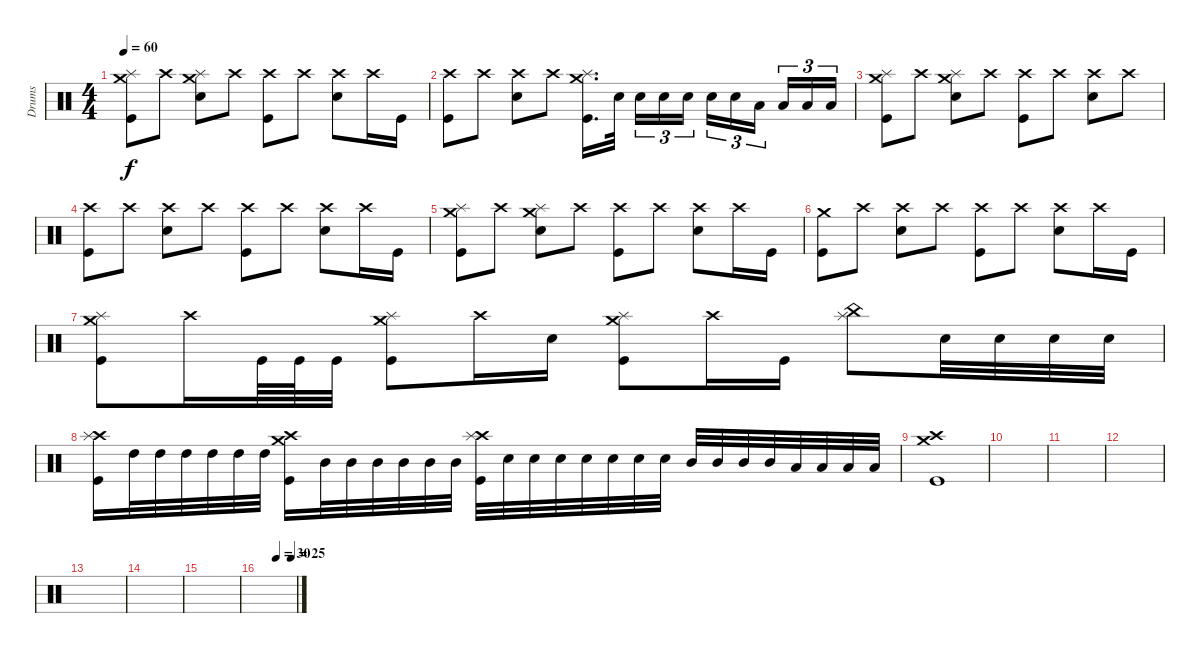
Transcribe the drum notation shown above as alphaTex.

\track ("Drums" "Drums") {instrument percussion}
\staff {score}
\articulation defaults
\ts (4 4)
\tempo 60
\clef neutral
\ks c
("Crash medium (hit)" "Splash (hit)" "Kick (hit)").8{dy f} "Crash high (hit)".8 ("Splash (hit)" "Crash medium (hit)" "Electric Snare (hit)").8 "Crash high (hit)".8 ("Crash high (hit)" "Kick (hit)").8 "Crash high (hit)".8 ("Crash high (hit)" "Electric Snare (hit)").8 "Crash high (hit)".16 "Kick (hit)".16 |
("Crash high (hit)" "Kick (hit)").8 "Crash high (hit)".8 ("Crash high (hit)" "Electric Snare (hit)").8 "Crash high (hit)".8 ("Crash medium (hit)" "Splash (hit)" "Kick (hit)").16{d} "Electric Snare (hit)".32{beam splitsecondary} "Electric Snare (hit)".16{tu (3 2)} "Electric Snare (hit)".16{tu (3 2)} "Electric Snare (hit)".16{tu (3 2)} "Electric Snare (hit)".16{tu (3 2)} "Electric Snare (hit)".16{tu (3 2)} "Low Tom (hit)".16{tu (3 2) beam splitsecondary} "Low Tom (hit)".16{tu (3 2)} "Low Tom (hit)".16{tu (3 2)} "Low Tom (hit)".16{tu (3 2)} |
("Crash medium (hit)" "Splash (hit)" "Kick (hit)").8 "Crash high (hit)".8 ("Splash (hit)" "Crash medium (hit)" "Electric Snare (hit)").8 "Crash high (hit)".8 ("Crash high (hit)" "Kick (hit)").8 "Crash high (hit)".8 ("Crash high (hit)" "Electric Snare (hit)").8 "Crash high (hit)".8 |
("Crash high (hit)" "Kick (hit)").8 "Crash high (hit)".8 ("Crash high (hit)" "Electric Snare (hit)").8 "Crash high (hit)".8 ("Crash high (hit)" "Kick (hit)").8 "Crash high (hit)".8 ("Crash high (hit)" "Electric Snare (hit)").8 "Crash high (hit)".16 "Kick (hit)".16 |
("Crash medium (hit)" "Splash (hit)" "Kick (hit)").8 "Crash high (hit)".8 ("Splash (hit)" "Crash medium (hit)" "Electric Snare (hit)").8 "Crash high (hit)".8 ("Crash high (hit)" "Kick (hit)").8 "Crash high (hit)".8 ("Crash high (hit)" "Electric Snare (hit)").8 "Crash high (hit)".16 "Kick (hit)".16 |
("Crash medium (hit)" "Kick (hit)").8 "Crash high (hit)".8 ("Crash high (hit)" "Electric Snare (hit)").8 "Crash high (hit)".8 ("Crash high (hit)" "Kick (hit)").8 "Crash high (hit)".8 ("Crash high (hit)" "Electric Snare (hit)").8 "Crash high (hit)".16 "Kick (hit)".16 |
("Crash medium (hit)" "Splash (hit)" "Kick (hit)").8 "Crash high (hit)".16 "Kick (hit)".64 "Kick (hit)".64 "Kick (hit)".32 ("Splash (hit)" "Crash medium (hit)" "Kick (hit)").8 "Crash high (hit)".16 "Electric Snare (hit)".16 ("Crash medium (hit)" "Splash (hit)" "Kick (hit)").8 "Crash high (hit)".16 "Kick (hit)".16 ("Splash (hit)" "China (hit)").8 "Electric Snare (hit)".32 "Electric Snare (hit)".32 "Electric Snare (hit)".32 "Electric Snare (hit)".32 |
("Crash high (hit)" "Splash (hit)" "Kick (hit)").16 "High Tom (hit)".32 "High Tom (hit)".32 "High Tom (hit)".32 "High Tom (hit)".32 "High Tom (hit)".32 "High Tom (hit)".32 ("Crash high (hit)" "Crash medium (hit)" "Kick (hit)").16 "Mid Tom (hit)".32 "Mid Tom (hit)".32 "Mid Tom (hit)".32 "Mid Tom (hit)".32 "Mid Tom (hit)".32 "Mid Tom (hit)".32 ("Crash high (hit)" "Splash (hit)" "Kick (hit)").32 "Electric Snare (hit)".32 "Electric Snare (hit)".32 "Electric Snare (hit)".32 "Electric Snare (hit)".32 "Electric Snare (hit)".32 "Electric Snare (hit)".32 "Electric Snare (hit)".32 "Mid Tom (hit)".32 "Mid Tom (hit)".32 "Mid Tom (hit)".32 "Mid Tom (hit)".32 "Low Tom (hit)".32 "Low Tom (hit)".32 "Low Tom (hit)".32 "Low Tom (hit)".32 |
("Crash high (hit)" "Crash medium (hit)" "Kick (hit)").1 |
|
|
|
|
|
|
\tempo (30 0.46875)
\tempo (25 0.875)
